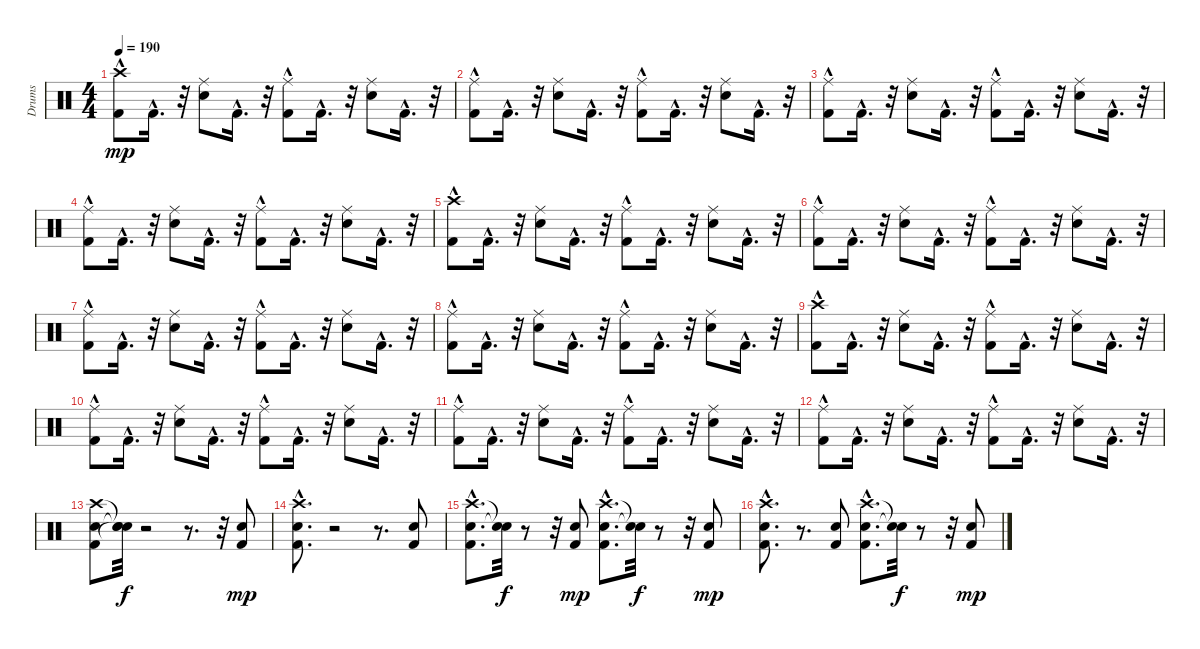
\track ("Drums" "Drums") {instrument percussion}
\staff {score}
\articulation defaults
\ts (4 4)
\tempo 190
\clef neutral
\ks c
("Crash high (hit)" "Kick (hit) 2"{hac}).8{dy mp} "Kick (hit) 2"{hac}.16{d} r.32 ("Ride (middle)" "Snare (hit) 2").8 "Kick (hit) 2"{hac}.16{d} r.32 ("Ride (middle)" "Kick (hit) 2"{hac}).8 "Kick (hit) 2"{hac}.16{d} r.32 ("Ride (middle)" "Snare (hit) 2").8 "Kick (hit) 2"{hac}.16{d} r.32 |
("Ride (middle)" "Kick (hit) 2"{hac}).8 "Kick (hit) 2"{hac}.16{d} r.32 ("Ride (middle)" "Snare (hit) 2").8 "Kick (hit) 2"{hac}.16{d} r.32 ("Ride (middle)" "Kick (hit) 2"{hac}).8 "Kick (hit) 2"{hac}.16{d} r.32 ("Ride (middle)" "Snare (hit) 2").8 "Kick (hit) 2"{hac}.16{d} r.32 |
("Ride (middle)" "Kick (hit) 2"{hac}).8 "Kick (hit) 2"{hac}.16{d} r.32 ("Ride (middle)" "Snare (hit) 2").8 "Kick (hit) 2"{hac}.16{d} r.32 ("Ride (middle)" "Kick (hit) 2"{hac}).8 "Kick (hit) 2"{hac}.16{d} r.32 ("Ride (middle)" "Snare (hit) 2").8 "Kick (hit) 2"{hac}.16{d} r.32 |
("Ride (middle)" "Kick (hit) 2"{hac}).8 "Kick (hit) 2"{hac}.16{d} r.32 ("Ride (middle)" "Snare (hit) 2").8 "Kick (hit) 2"{hac}.16{d} r.32 ("Ride (middle)" "Kick (hit) 2"{hac}).8 "Kick (hit) 2"{hac}.16{d} r.32 ("Ride (middle)" "Snare (hit) 2").8 "Kick (hit) 2"{hac}.16{d} r.32 |
("Crash high (hit)" "Kick (hit) 2"{hac}).8 "Kick (hit) 2"{hac}.16{d} r.32 ("Ride (middle)" "Snare (hit) 2").8 "Kick (hit) 2"{hac}.16{d} r.32 ("Ride (middle)" "Kick (hit) 2"{hac}).8 "Kick (hit) 2"{hac}.16{d} r.32 ("Ride (middle)" "Snare (hit) 2").8 "Kick (hit) 2"{hac}.16{d} r.32 |
("Ride (middle)" "Kick (hit) 2"{hac}).8 "Kick (hit) 2"{hac}.16{d} r.32 ("Ride (middle)" "Snare (hit) 2").8 "Kick (hit) 2"{hac}.16{d} r.32 ("Ride (middle)" "Kick (hit) 2"{hac}).8 "Kick (hit) 2"{hac}.16{d} r.32 ("Ride (middle)" "Snare (hit) 2").8 "Kick (hit) 2"{hac}.16{d} r.32 |
("Ride (middle)" "Kick (hit) 2"{hac}).8 "Kick (hit) 2"{hac}.16{d} r.32 ("Ride (middle)" "Snare (hit) 2").8 "Kick (hit) 2"{hac}.16{d} r.32 ("Ride (middle)" "Kick (hit) 2"{hac}).8 "Kick (hit) 2"{hac}.16{d} r.32 ("Ride (middle)" "Snare (hit) 2").8 "Kick (hit) 2"{hac}.16{d} r.32 |
("Ride (middle)" "Kick (hit) 2"{hac}).8 "Kick (hit) 2"{hac}.16{d} r.32 ("Ride (middle)" "Snare (hit) 2").8 "Kick (hit) 2"{hac}.16{d} r.32 ("Ride (middle)" "Kick (hit) 2"{hac}).8 "Kick (hit) 2"{hac}.16{d} r.32 ("Ride (middle)" "Snare (hit) 2").8 "Kick (hit) 2"{hac}.16{d} r.32 |
("Crash high (hit)" "Kick (hit) 2"{hac}).8 "Kick (hit) 2"{hac}.16{d} r.32 ("Ride (middle)" "Snare (hit) 2").8 "Kick (hit) 2"{hac}.16{d} r.32 ("Ride (middle)" "Kick (hit) 2"{hac}).8 "Kick (hit) 2"{hac}.16{d} r.32 ("Ride (middle)" "Snare (hit) 2").8 "Kick (hit) 2"{hac}.16{d} r.32 |
("Ride (middle)" "Kick (hit) 2"{hac}).8 "Kick (hit) 2"{hac}.16{d} r.32 ("Ride (middle)" "Snare (hit) 2").8 "Kick (hit) 2"{hac}.16{d} r.32 ("Ride (middle)" "Kick (hit) 2"{hac}).8 "Kick (hit) 2"{hac}.16{d} r.32 ("Ride (middle)" "Snare (hit) 2").8 "Kick (hit) 2"{hac}.16{d} r.32 |
("Ride (middle)" "Kick (hit) 2"{hac}).8 "Kick (hit) 2"{hac}.16{d} r.32 ("Ride (middle)" "Snare (hit) 2").8 "Kick (hit) 2"{hac}.16{d} r.32 ("Ride (middle)" "Kick (hit) 2"{hac}).8 "Kick (hit) 2"{hac}.16{d} r.32 ("Ride (middle)" "Snare (hit) 2").8 "Kick (hit) 2"{hac}.16{d} r.32 |
("Ride (middle)" "Kick (hit) 2"{hac}).8 "Kick (hit) 2"{hac}.16{d} r.32 ("Ride (middle)" "Snare (hit) 2").8 "Kick (hit) 2"{hac}.16{d} r.32 ("Ride (middle)" "Kick (hit) 2"{hac}).8 "Kick (hit) 2"{hac}.16{d} r.32 ("Ride (middle)" "Snare (hit) 2").8 "Kick (hit) 2"{hac}.16{d} r.32 |
("Crash high (hit)" "Snare (hit) 2" "Kick (hit) 2").8 ("Snare (hit)"{t} "Snare (hit)"{t} "Snare (hit)"{t}).32{dy f} r.2 r.8{d} r.32 ("Snare (hit) 2" "Kick (hit) 2").8{dy mp} |
("Crash high (hit)" "Snare (hit) 2"{hac} "Kick (hit) 2"{hac}).8{d} r.2 r.8{d} ("Snare (hit) 2" "Kick (hit) 2").8 |
("Crash high (hit)" "Snare (hit) 2"{hac} "Kick (hit) 2"{hac}).8{d} ("Snare (hit)"{t} "Snare (hit)"{t}).32{dy f} r.8 r.32 ("Snare (hit) 2" "Kick (hit) 2").8{dy mp} ("Crash high (hit)" "Snare (hit) 2"{hac} "Kick (hit) 2"{hac}).8{d} ("Snare (hit)"{t} "Snare (hit)"{t}).32{dy f} r.8 r.32 ("Snare (hit) 2" "Kick (hit) 2").8{dy mp} |
("Crash high (hit)" "Snare (hit) 2"{hac} "Kick (hit) 2"{hac}).8{d} r.8{d} ("Snare (hit) 2" "Kick (hit) 2").8 ("Crash high (hit)" "Snare (hit) 2"{hac} "Kick (hit) 2"{hac}).8{d} ("Snare (hit)"{t} "Snare (hit)"{t}).32{dy f} r.8 r.32 ("Snare (hit) 2" "Kick (hit) 2").8{dy mp}
